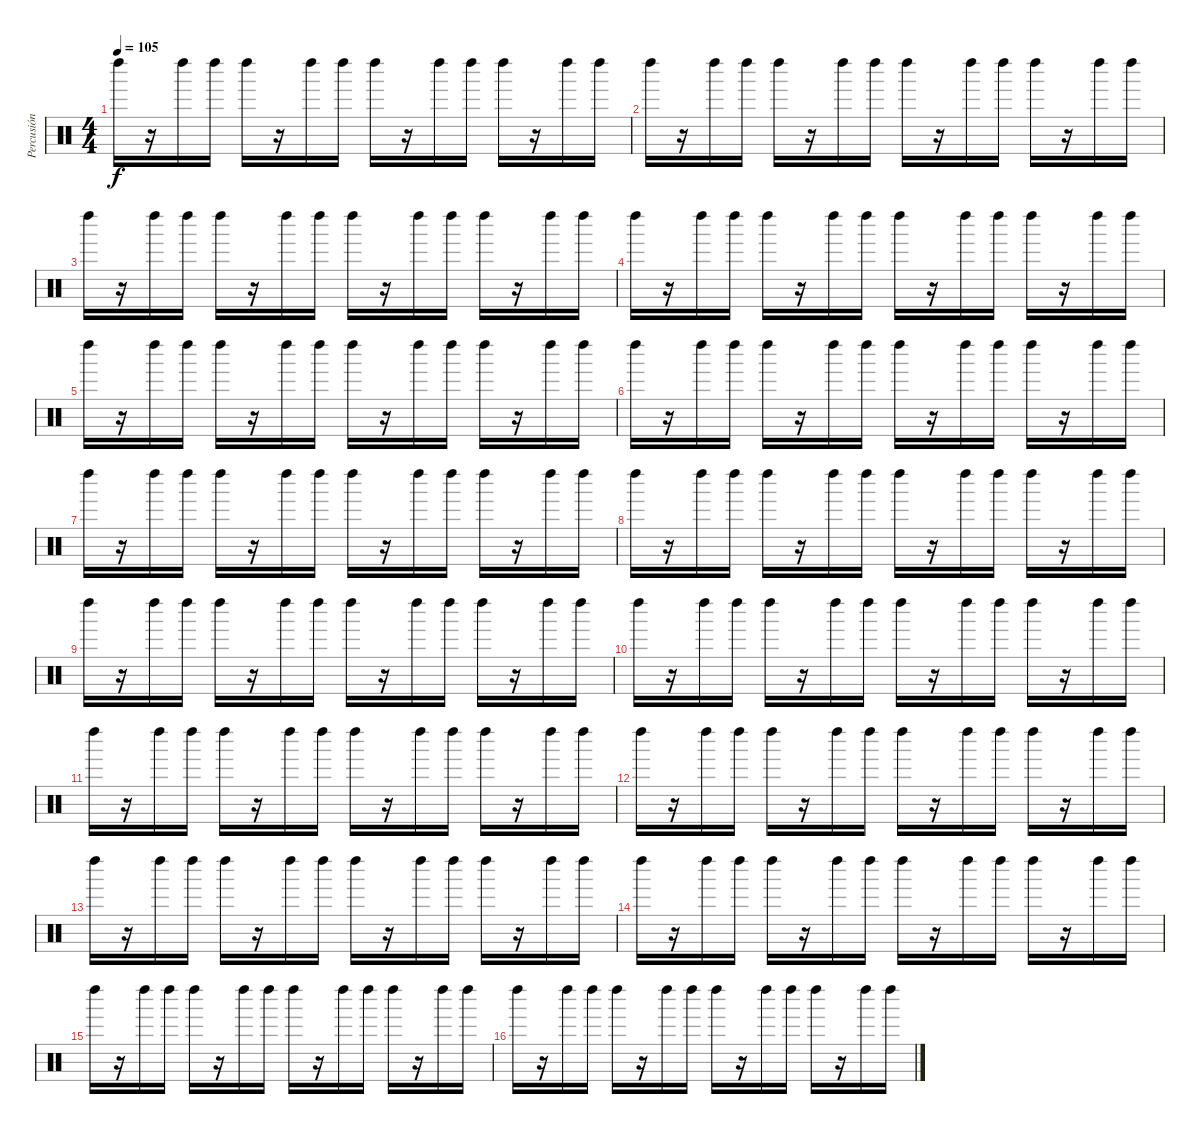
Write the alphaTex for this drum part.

\track ("Percusión" "Percusión") {instrument percussion}
\staff {score}
\articulation defaults
\ts (4 4)
\tempo 105
\clef neutral
\ks c "Left Maraca (hit)".16{dy f}
r.16 "Left Maraca (hit)".16 "Left Maraca (hit)".16 "Left Maraca (hit)".16 r.16 "Left Maraca (hit)".16 "Left Maraca (hit)".16 "Left Maraca (hit)".16 r.16 "Left Maraca (hit)".16 "Left Maraca (hit)".16 "Left Maraca (hit)".16 r.16 "Left Maraca (hit)".16 "Left Maraca (hit)".16 |
"Left Maraca (hit)".16 r.16 "Left Maraca (hit)".16 "Left Maraca (hit)".16 "Left Maraca (hit)".16 r.16 "Left Maraca (hit)".16 "Left Maraca (hit)".16 "Left Maraca (hit)".16 r.16 "Left Maraca (hit)".16 "Left Maraca (hit)".16 "Left Maraca (hit)".16 r.16 "Left Maraca (hit)".16 "Left Maraca (hit)".16 |
"Left Maraca (hit)".16 r.16 "Left Maraca (hit)".16 "Left Maraca (hit)".16 "Left Maraca (hit)".16 r.16 "Left Maraca (hit)".16 "Left Maraca (hit)".16 "Left Maraca (hit)".16 r.16 "Left Maraca (hit)".16 "Left Maraca (hit)".16 "Left Maraca (hit)".16 r.16 "Left Maraca (hit)".16 "Left Maraca (hit)".16 |
"Left Maraca (hit)".16 r.16 "Left Maraca (hit)".16 "Left Maraca (hit)".16 "Left Maraca (hit)".16 r.16 "Left Maraca (hit)".16 "Left Maraca (hit)".16 "Left Maraca (hit)".16 r.16 "Left Maraca (hit)".16 "Left Maraca (hit)".16 "Left Maraca (hit)".16 r.16 "Left Maraca (hit)".16 "Left Maraca (hit)".16 |
"Left Maraca (hit)".16 r.16 "Left Maraca (hit)".16 "Left Maraca (hit)".16 "Left Maraca (hit)".16 r.16 "Left Maraca (hit)".16 "Left Maraca (hit)".16 "Left Maraca (hit)".16 r.16 "Left Maraca (hit)".16 "Left Maraca (hit)".16 "Left Maraca (hit)".16 r.16 "Left Maraca (hit)".16 "Left Maraca (hit)".16 |
"Left Maraca (hit)".16 r.16 "Left Maraca (hit)".16 "Left Maraca (hit)".16 "Left Maraca (hit)".16 r.16 "Left Maraca (hit)".16 "Left Maraca (hit)".16 "Left Maraca (hit)".16 r.16 "Left Maraca (hit)".16 "Left Maraca (hit)".16 "Left Maraca (hit)".16 r.16 "Left Maraca (hit)".16 "Left Maraca (hit)".16 |
"Left Maraca (hit)".16 r.16 "Left Maraca (hit)".16 "Left Maraca (hit)".16 "Left Maraca (hit)".16 r.16 "Left Maraca (hit)".16 "Left Maraca (hit)".16 "Left Maraca (hit)".16 r.16 "Left Maraca (hit)".16 "Left Maraca (hit)".16 "Left Maraca (hit)".16 r.16 "Left Maraca (hit)".16 "Left Maraca (hit)".16 |
"Left Maraca (hit)".16 r.16 "Left Maraca (hit)".16 "Left Maraca (hit)".16 "Left Maraca (hit)".16 r.16 "Left Maraca (hit)".16 "Left Maraca (hit)".16 "Left Maraca (hit)".16 r.16 "Left Maraca (hit)".16 "Left Maraca (hit)".16 "Left Maraca (hit)".16 r.16 "Left Maraca (hit)".16 "Left Maraca (hit)".16 |
"Left Maraca (hit)".16 r.16 "Left Maraca (hit)".16 "Left Maraca (hit)".16 "Left Maraca (hit)".16 r.16 "Left Maraca (hit)".16 "Left Maraca (hit)".16 "Left Maraca (hit)".16 r.16 "Left Maraca (hit)".16 "Left Maraca (hit)".16 "Left Maraca (hit)".16 r.16 "Left Maraca (hit)".16 "Left Maraca (hit)".16 |
"Left Maraca (hit)".16 r.16 "Left Maraca (hit)".16 "Left Maraca (hit)".16 "Left Maraca (hit)".16 r.16 "Left Maraca (hit)".16 "Left Maraca (hit)".16 "Left Maraca (hit)".16 r.16 "Left Maraca (hit)".16 "Left Maraca (hit)".16 "Left Maraca (hit)".16 r.16 "Left Maraca (hit)".16 "Left Maraca (hit)".16 |
"Left Maraca (hit)".16 r.16 "Left Maraca (hit)".16 "Left Maraca (hit)".16 "Left Maraca (hit)".16 r.16 "Left Maraca (hit)".16 "Left Maraca (hit)".16 "Left Maraca (hit)".16 r.16 "Left Maraca (hit)".16 "Left Maraca (hit)".16 "Left Maraca (hit)".16 r.16 "Left Maraca (hit)".16 "Left Maraca (hit)".16 |
"Left Maraca (hit)".16 r.16 "Left Maraca (hit)".16 "Left Maraca (hit)".16 "Left Maraca (hit)".16 r.16 "Left Maraca (hit)".16 "Left Maraca (hit)".16 "Left Maraca (hit)".16 r.16 "Left Maraca (hit)".16 "Left Maraca (hit)".16 "Left Maraca (hit)".16 r.16 "Left Maraca (hit)".16 "Left Maraca (hit)".16 |
"Left Maraca (hit)".16 r.16 "Left Maraca (hit)".16 "Left Maraca (hit)".16 "Left Maraca (hit)".16 r.16 "Left Maraca (hit)".16 "Left Maraca (hit)".16 "Left Maraca (hit)".16 r.16 "Left Maraca (hit)".16 "Left Maraca (hit)".16 "Left Maraca (hit)".16 r.16 "Left Maraca (hit)".16 "Left Maraca (hit)".16 |
"Left Maraca (hit)".16 r.16 "Left Maraca (hit)".16 "Left Maraca (hit)".16 "Left Maraca (hit)".16 r.16 "Left Maraca (hit)".16 "Left Maraca (hit)".16 "Left Maraca (hit)".16 r.16 "Left Maraca (hit)".16 "Left Maraca (hit)".16 "Left Maraca (hit)".16 r.16 "Left Maraca (hit)".16 "Left Maraca (hit)".16 |
"Left Maraca (hit)".16 r.16 "Left Maraca (hit)".16 "Left Maraca (hit)".16 "Left Maraca (hit)".16 r.16 "Left Maraca (hit)".16 "Left Maraca (hit)".16 "Left Maraca (hit)".16 r.16 "Left Maraca (hit)".16 "Left Maraca (hit)".16 "Left Maraca (hit)".16 r.16 "Left Maraca (hit)".16 "Left Maraca (hit)".16 |
"Left Maraca (hit)".16 r.16 "Left Maraca (hit)".16 "Left Maraca (hit)".16 "Left Maraca (hit)".16 r.16 "Left Maraca (hit)".16 "Left Maraca (hit)".16 "Left Maraca (hit)".16 r.16 "Left Maraca (hit)".16 "Left Maraca (hit)".16 "Left Maraca (hit)".16 r.16 "Left Maraca (hit)".16 "Left Maraca (hit)".16
